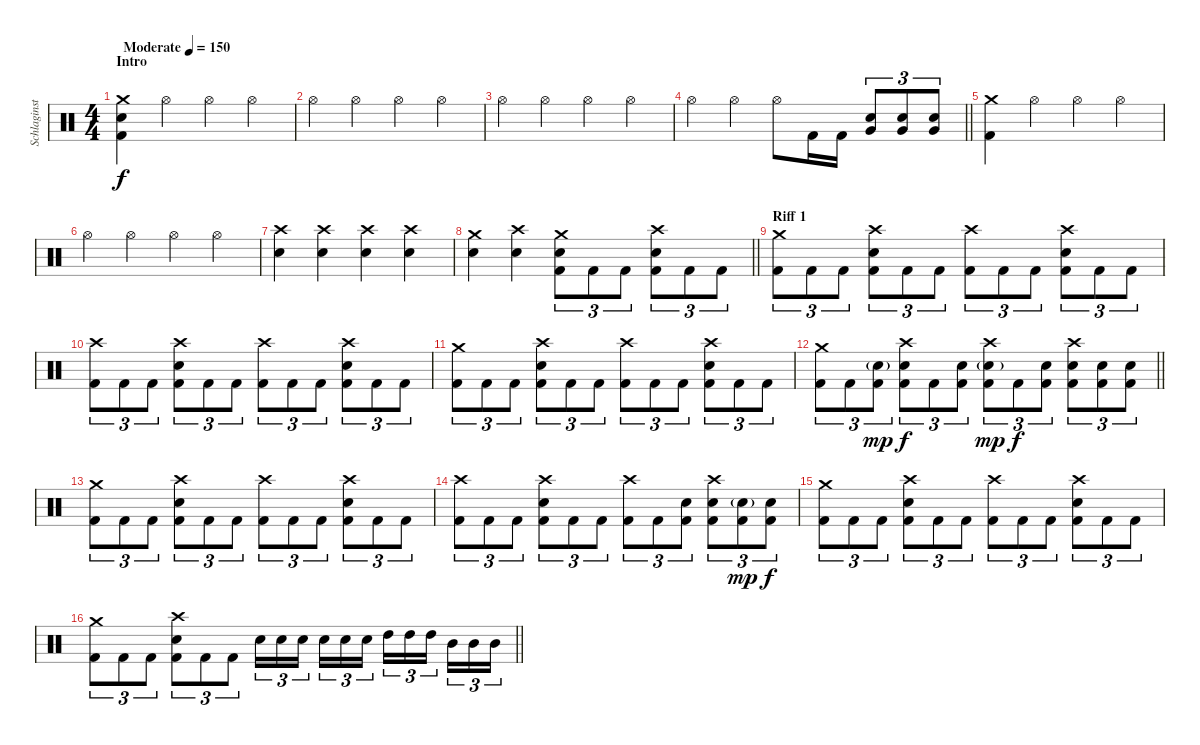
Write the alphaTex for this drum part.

\track ("Schlaginstrumente - Auswahl" "Schlaginst") {instrument percussion}
\staff {score}
\articulation defaults
\ts (4 4)
\section ("" "Intro")
\tempo (150 "Moderate")
\clef neutral
\ks c
("Crash medium (hit)" "Electric Snare (hit)" "Kick (hit) 2").4{dy f} "Hi-Hat (open)".4 "Hi-Hat (open)".4 "Hi-Hat (open)".4 |
"Hi-Hat (open)".4 "Hi-Hat (open)".4 "Hi-Hat (open)".4 "Hi-Hat (open)".4 |
"Hi-Hat (open)".4 "Hi-Hat (open)".4 "Hi-Hat (open)".4 "Hi-Hat (open)".4 |
\barLineRight lightlight "Hi-Hat (open)".4 "Hi-Hat (open)".4 "Hi-Hat (open)".8 "Kick (hit) 2".16 "Kick (hit) 2".16
("Very Low Tom (hit)" "Electric Snare (hit)").8{tu (3 2)} ("Very Low Tom (hit)" "Electric Snare (hit)").8{tu (3 2)} ("Very Low Tom (hit)" "Electric Snare (hit)").8{tu (3 2)} |
("Crash medium (hit)" "Kick (hit) 2").4 "Hi-Hat (open)".4 "Hi-Hat (open)".4 "Hi-Hat (open)".4 |
"Hi-Hat (open)".4 "Hi-Hat (open)".4 "Hi-Hat (open)".4 "Hi-Hat (open)".4 |
("Crash high (hit)" "Electric Snare (hit)").4 ("Crash high (hit)" "Electric Snare (hit)").4 ("Crash high (hit)" "Electric Snare (hit)").4 ("Crash high (hit)" "Electric Snare (hit)").4 |
\barLineRight lightlight
("Crash medium (hit)" "Electric Snare (hit)").4 ("Crash high (hit)" "Electric Snare (hit)").4 ("Crash medium (hit)" "Electric Snare (hit)" "Kick (hit) 2").8{tu (3 2)} "Kick (hit) 2".8{tu (3 2)} "Kick (hit) 2".8{tu (3 2)} ("Crash high (hit)" "Electric Snare (hit)" "Kick (hit) 2").8{tu (3 2)} "Kick (hit) 2".8{tu (3 2)} "Kick (hit) 2".8{tu (3 2)} |
\section ("" "Riff 1")
("Crash medium (hit)" "Kick (hit) 2").8{tu (3 2)} "Kick (hit) 2".8{tu (3 2)} "Kick (hit) 2".8{tu (3 2)} ("Crash high (hit)" "Electric Snare (hit)" "Kick (hit) 2").8{tu (3 2)} "Kick (hit) 2".8{tu (3 2)} "Kick (hit) 2".8{tu (3 2)} ("Crash high (hit)" "Kick (hit) 2").8{tu (3 2)} "Kick (hit) 2".8{tu (3 2)} "Kick (hit) 2".8{tu (3 2)} ("Crash high (hit)" "Electric Snare (hit)" "Kick (hit) 2").8{tu (3 2)} "Kick (hit) 2".8{tu (3 2)} "Kick (hit) 2".8{tu (3 2)} |
("Crash high (hit)" "Kick (hit) 2").8{tu (3 2)} "Kick (hit) 2".8{tu (3 2)} "Kick (hit) 2".8{tu (3 2)} ("Crash high (hit)" "Electric Snare (hit)" "Kick (hit) 2").8{tu (3 2)} "Kick (hit) 2".8{tu (3 2)} "Kick (hit) 2".8{tu (3 2)} ("Crash high (hit)" "Kick (hit) 2").8{tu (3 2)} "Kick (hit) 2".8{tu (3 2)} "Kick (hit) 2".8{tu (3 2)} ("Crash high (hit)" "Electric Snare (hit)" "Kick (hit) 2").8{tu (3 2)} "Kick (hit) 2".8{tu (3 2)} "Kick (hit) 2".8{tu (3 2)} |
("Crash medium (hit)" "Kick (hit) 2").8{tu (3 2)} "Kick (hit) 2".8{tu (3 2)} "Kick (hit) 2".8{tu (3 2)} ("Crash high (hit)" "Electric Snare (hit)" "Kick (hit) 2").8{tu (3 2)} "Kick (hit) 2".8{tu (3 2)} "Kick (hit) 2".8{tu (3 2)} ("Crash high (hit)" "Kick (hit) 2").8{tu (3 2)} "Kick (hit) 2".8{tu (3 2)} "Kick (hit) 2".8{tu (3 2)} ("Crash high (hit)" "Electric Snare (hit)" "Kick (hit) 2").8{tu (3 2)} "Kick (hit) 2".8{tu (3 2)} "Kick (hit) 2".8{tu (3 2)} |
\barLineRight lightlight
("Crash medium (hit)" "Kick (hit) 2").8{tu (3 2)} "Kick (hit) 2".8{tu (3 2)} ("Electric Snare (hit)"{g} "Kick (hit) 2").8{tu (3 2) dy mp} ("Crash high (hit)" "Electric Snare (hit)" "Kick (hit) 2").8{tu (3 2) dy f} "Kick (hit) 2".8{tu (3 2)} ("Electric Snare (hit)" "Kick (hit) 2").8{tu (3 2)} ("Crash high (hit)" "Electric Snare (hit)"{g} "Kick (hit) 2").8{tu (3 2) dy mp} "Kick (hit) 2".8{tu (3 2) dy f} ("Electric Snare (hit)" "Kick (hit) 2").8{tu (3 2)} ("Crash high (hit)" "Electric Snare (hit)" "Kick (hit) 2").8{tu (3 2)} ("Electric Snare (hit)" "Kick (hit) 2").8{tu (3 2)} ("Electric Snare (hit)" "Kick (hit) 2").8{tu (3 2)} |
("Crash medium (hit)" "Kick (hit) 2").8{tu (3 2)} "Kick (hit) 2".8{tu (3 2)} "Kick (hit) 2".8{tu (3 2)} ("Crash high (hit)" "Electric Snare (hit)" "Kick (hit) 2").8{tu (3 2)} "Kick (hit) 2".8{tu (3 2)} "Kick (hit) 2".8{tu (3 2)} ("Crash high (hit)" "Kick (hit) 2").8{tu (3 2)} "Kick (hit) 2".8{tu (3 2)} "Kick (hit) 2".8{tu (3 2)} ("Crash high (hit)" "Electric Snare (hit)" "Kick (hit) 2").8{tu (3 2)} "Kick (hit) 2".8{tu (3 2)} "Kick (hit) 2".8{tu (3 2)} |
("Crash high (hit)" "Kick (hit) 2").8{tu (3 2)} "Kick (hit) 2".8{tu (3 2)} "Kick (hit) 2".8{tu (3 2)} ("Crash high (hit)" "Electric Snare (hit)" "Kick (hit) 2").8{tu (3 2)} "Kick (hit) 2".8{tu (3 2)} "Kick (hit) 2".8{tu (3 2)} ("Crash high (hit)" "Kick (hit) 2").8{tu (3 2)} "Kick (hit) 2".8{tu (3 2)} ("Electric Snare (hit)" "Kick (hit) 2").8{tu (3 2)} ("Crash high (hit)" "Electric Snare (hit)" "Kick (hit) 2").8{tu (3 2)} ("Electric Snare (hit)"{g} "Kick (hit) 2").8{tu (3 2) dy mp} ("Electric Snare (hit)" "Kick (hit) 2").8{tu (3 2) dy f} |
("Crash medium (hit)" "Kick (hit) 2").8{tu (3 2)} "Kick (hit) 2".8{tu (3 2)} "Kick (hit) 2".8{tu (3 2)} ("Crash high (hit)" "Electric Snare (hit)" "Kick (hit) 2").8{tu (3 2)} "Kick (hit) 2".8{tu (3 2)} "Kick (hit) 2".8{tu (3 2)} ("Crash high (hit)" "Kick (hit) 2").8{tu (3 2)} "Kick (hit) 2".8{tu (3 2)} "Kick (hit) 2".8{tu (3 2)} ("Crash high (hit)" "Electric Snare (hit)" "Kick (hit) 2").8{tu (3 2)} "Kick (hit) 2".8{tu (3 2)} "Kick (hit) 2".8{tu (3 2)} |
\barLineRight lightlight
("Crash medium (hit)" "Kick (hit) 2").8{tu (3 2)} "Kick (hit) 2".8{tu (3 2)} "Kick (hit) 2".8{tu (3 2)} ("Crash high (hit)" "Electric Snare (hit)" "Kick (hit) 2").8{tu (3 2)} "Kick (hit) 2".8{tu (3 2)} "Kick (hit) 2".8{tu (3 2)} "Electric Snare (hit)".16{tu (3 2)} "Electric Snare (hit)".16{tu (3 2)} "Electric Snare (hit)".16{tu (3 2) beam splitsecondary} "Electric Snare (hit)".16{tu (3 2)} "Electric Snare (hit)".16{tu (3 2)} "Electric Snare (hit)".16{tu (3 2)} "High Tom (hit)".16{tu (3 2)} "High Tom (hit)".16{tu (3 2)} "High Tom (hit)".16{tu (3 2) beam splitsecondary} "Mid Tom (hit)".16{tu (3 2)} "Mid Tom (hit)".16{tu (3 2)} "Mid Tom (hit)".16{tu (3 2)}
